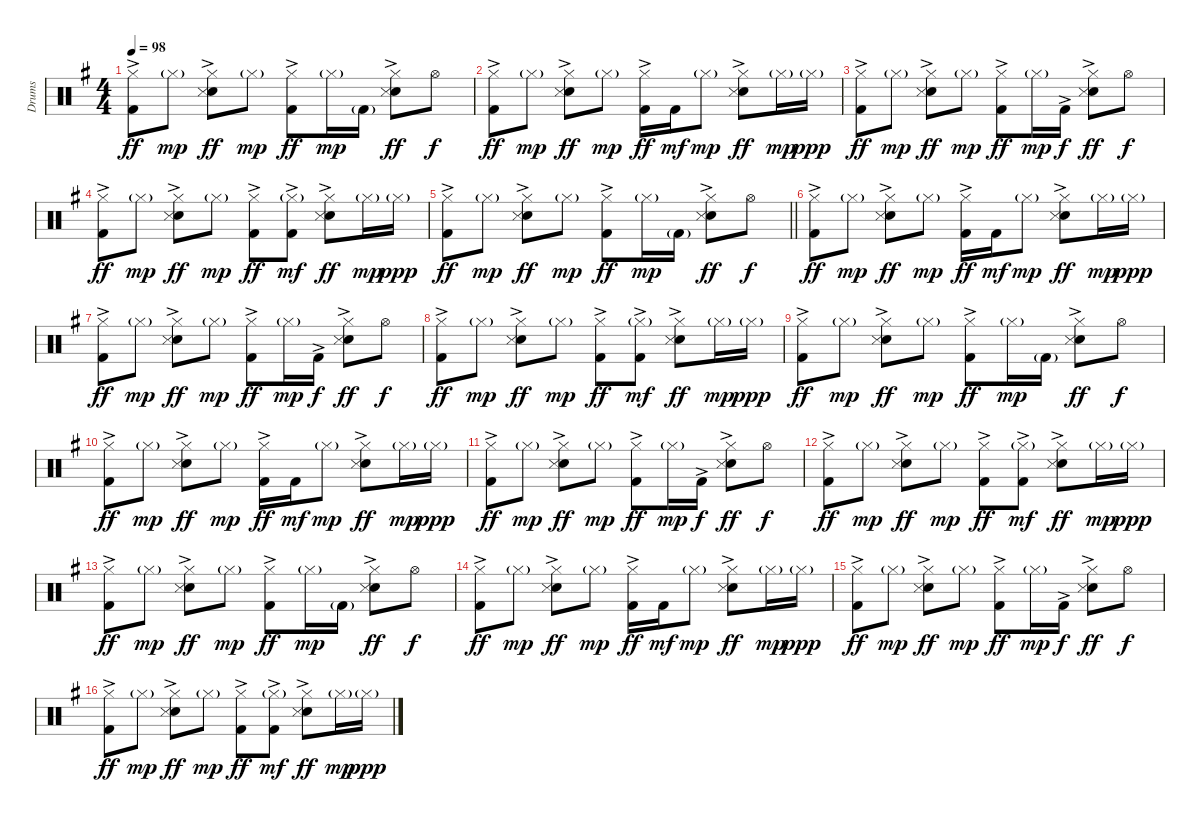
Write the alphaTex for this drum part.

\track ("Drums" "Drums") {instrument percussion}
\staff {score}
\articulation defaults
\ts (4 4)
\tempo 98
\clef neutral
\ks g
("Hi-Hat (closed)" "Kick (hit) 2"{ac}).8{dy ff} "Hi-Hat (closed)"{g}.8{dy mp} ("Hi-Hat (closed)" "Hand Clap (hit)" "Snare (side stick) 3"{ac}).8{dy ff} "Hi-Hat (closed)"{g}.8{dy mp} ("Hi-Hat (closed)" "Kick (hit) 2"{ac}).8{dy ff} "Hi-Hat (closed)"{g}.16{dy mp} "Kick (hit) 2"{g}.16 ("Hi-Hat (closed)" "Hand Clap (hit)" "Snare (side stick) 3"{ac}).8{dy ff} "Hi-Hat (open)".8{dy f} |
("Hi-Hat (closed)" "Kick (hit) 2"{ac}).8{dy ff} "Hi-Hat (closed)"{g}.8{dy mp} ("Hi-Hat (closed)" "Hand Clap (hit)" "Snare (side stick) 3"{ac}).8{dy ff} "Hi-Hat (closed)"{g}.8{dy mp} ("Hi-Hat (closed)" "Kick (hit) 2"{ac}).16{dy ff} "Kick (hit) 2".16{dy mf} "Hi-Hat (closed)"{g}.8{dy mp} ("Hi-Hat (closed)" "Hand Clap (hit)" "Snare (side stick) 3"{ac}).8{dy ff} "Hi-Hat (closed)"{g}.16{dy mp} "Hi-Hat (closed)"{g}.16{dy ppp} |
("Hi-Hat (closed)" "Kick (hit) 2"{ac}).8{dy ff} "Hi-Hat (closed)"{g}.8{dy mp} ("Hi-Hat (closed)" "Hand Clap (hit)" "Snare (side stick) 3"{ac}).8{dy ff} "Hi-Hat (closed)"{g}.8{dy mp} ("Hi-Hat (closed)" "Kick (hit) 2"{ac}).8{dy ff} "Hi-Hat (closed)"{g}.16{dy mp} "Kick (hit) 2"{ac}.16{dy f} ("Hi-Hat (closed)" "Hand Clap (hit)" "Snare (side stick) 3"{ac}).8{dy ff} "Hi-Hat (open)".8{dy f} |
("Hi-Hat (closed)" "Kick (hit) 2"{ac}).8{dy ff} "Hi-Hat (closed)"{g}.8{dy mp} ("Hi-Hat (closed)" "Hand Clap (hit)" "Snare (side stick) 3"{ac}).8{dy ff} "Hi-Hat (closed)"{g}.8{dy mp} ("Hi-Hat (closed)" "Kick (hit) 2"{ac}).8{dy ff} ("Hi-Hat (closed)"{g} "Kick (hit) 2"{ac}).8{dy mf} ("Hi-Hat (closed)" "Hand Clap (hit)" "Snare (side stick) 3"{ac}).8{dy ff} "Hi-Hat (closed)"{g}.16{dy mp} "Hi-Hat (closed)"{g}.16{dy ppp} |
\barLineRight lightlight
("Hi-Hat (closed)" "Kick (hit) 2"{ac}).8{dy ff} "Hi-Hat (closed)"{g}.8{dy mp} ("Hi-Hat (closed)" "Hand Clap (hit)" "Snare (side stick) 3"{ac}).8{dy ff} "Hi-Hat (closed)"{g}.8{dy mp} ("Hi-Hat (closed)" "Kick (hit) 2"{ac}).8{dy ff} "Hi-Hat (closed)"{g}.16{dy mp} "Kick (hit) 2"{g}.16 ("Hi-Hat (closed)" "Hand Clap (hit)" "Snare (side stick) 3"{ac}).8{dy ff} "Hi-Hat (open)".8{dy f} |
("Hi-Hat (closed)" "Kick (hit) 2"{ac}).8{dy ff} "Hi-Hat (closed)"{g}.8{dy mp} ("Hi-Hat (closed)" "Hand Clap (hit)" "Snare (side stick) 3"{ac}).8{dy ff} "Hi-Hat (closed)"{g}.8{dy mp} ("Hi-Hat (closed)" "Kick (hit) 2"{ac}).16{dy ff} "Kick (hit) 2".16{dy mf} "Hi-Hat (closed)"{g}.8{dy mp} ("Hi-Hat (closed)" "Hand Clap (hit)" "Snare (side stick) 3"{ac}).8{dy ff} "Hi-Hat (closed)"{g}.16{dy mp} "Hi-Hat (closed)"{g}.16{dy ppp} |
("Hi-Hat (closed)" "Kick (hit) 2"{ac}).8{dy ff} "Hi-Hat (closed)"{g}.8{dy mp} ("Hi-Hat (closed)" "Hand Clap (hit)" "Snare (side stick) 3"{ac}).8{dy ff} "Hi-Hat (closed)"{g}.8{dy mp} ("Hi-Hat (closed)" "Kick (hit) 2"{ac}).8{dy ff} "Hi-Hat (closed)"{g}.16{dy mp} "Kick (hit) 2"{ac}.16{dy f} ("Hi-Hat (closed)" "Hand Clap (hit)" "Snare (side stick) 3"{ac}).8{dy ff} "Hi-Hat (open)".8{dy f} |
("Hi-Hat (closed)" "Kick (hit) 2"{ac}).8{dy ff} "Hi-Hat (closed)"{g}.8{dy mp} ("Hi-Hat (closed)" "Hand Clap (hit)" "Snare (side stick) 3"{ac}).8{dy ff} "Hi-Hat (closed)"{g}.8{dy mp} ("Hi-Hat (closed)" "Kick (hit) 2"{ac}).8{dy ff} ("Hi-Hat (closed)"{g} "Kick (hit) 2"{ac}).8{dy mf} ("Hi-Hat (closed)" "Hand Clap (hit)" "Snare (side stick) 3"{ac}).8{dy ff} "Hi-Hat (closed)"{g}.16{dy mp} "Hi-Hat (closed)"{g}.16{dy ppp} |
("Hi-Hat (closed)" "Kick (hit) 2"{ac}).8{dy ff} "Hi-Hat (closed)"{g}.8{dy mp} ("Hi-Hat (closed)" "Hand Clap (hit)" "Snare (side stick) 3"{ac}).8{dy ff} "Hi-Hat (closed)"{g}.8{dy mp} ("Hi-Hat (closed)" "Kick (hit) 2"{ac}).8{dy ff} "Hi-Hat (closed)"{g}.16{dy mp} "Kick (hit) 2"{g}.16 ("Hi-Hat (closed)" "Hand Clap (hit)" "Snare (side stick) 3"{ac}).8{dy ff} "Hi-Hat (open)".8{dy f} |
("Hi-Hat (closed)" "Kick (hit) 2"{ac}).8{dy ff} "Hi-Hat (closed)"{g}.8{dy mp} ("Hi-Hat (closed)" "Hand Clap (hit)" "Snare (side stick) 3"{ac}).8{dy ff} "Hi-Hat (closed)"{g}.8{dy mp} ("Hi-Hat (closed)" "Kick (hit) 2"{ac}).16{dy ff} "Kick (hit) 2".16{dy mf} "Hi-Hat (closed)"{g}.8{dy mp} ("Hi-Hat (closed)" "Hand Clap (hit)" "Snare (side stick) 3"{ac}).8{dy ff} "Hi-Hat (closed)"{g}.16{dy mp} "Hi-Hat (closed)"{g}.16{dy ppp} |
("Hi-Hat (closed)" "Kick (hit) 2"{ac}).8{dy ff} "Hi-Hat (closed)"{g}.8{dy mp} ("Hi-Hat (closed)" "Hand Clap (hit)" "Snare (side stick) 3"{ac}).8{dy ff} "Hi-Hat (closed)"{g}.8{dy mp} ("Hi-Hat (closed)" "Kick (hit) 2"{ac}).8{dy ff} "Hi-Hat (closed)"{g}.16{dy mp} "Kick (hit) 2"{ac}.16{dy f} ("Hi-Hat (closed)" "Hand Clap (hit)" "Snare (side stick) 3"{ac}).8{dy ff} "Hi-Hat (open)".8{dy f} |
("Hi-Hat (closed)" "Kick (hit) 2"{ac}).8{dy ff} "Hi-Hat (closed)"{g}.8{dy mp} ("Hi-Hat (closed)" "Hand Clap (hit)" "Snare (side stick) 3"{ac}).8{dy ff} "Hi-Hat (closed)"{g}.8{dy mp} ("Hi-Hat (closed)" "Kick (hit) 2"{ac}).8{dy ff} ("Hi-Hat (closed)"{g} "Kick (hit) 2"{ac}).8{dy mf} ("Hi-Hat (closed)" "Hand Clap (hit)" "Snare (side stick) 3"{ac}).8{dy ff} "Hi-Hat (closed)"{g}.16{dy mp} "Hi-Hat (closed)"{g}.16{dy ppp} |
("Hi-Hat (closed)" "Kick (hit) 2"{ac}).8{dy ff} "Hi-Hat (closed)"{g}.8{dy mp} ("Hi-Hat (closed)" "Hand Clap (hit)" "Snare (side stick) 3"{ac}).8{dy ff} "Hi-Hat (closed)"{g}.8{dy mp} ("Hi-Hat (closed)" "Kick (hit) 2"{ac}).8{dy ff} "Hi-Hat (closed)"{g}.16{dy mp} "Kick (hit) 2"{g}.16 ("Hi-Hat (closed)" "Hand Clap (hit)" "Snare (side stick) 3"{ac}).8{dy ff} "Hi-Hat (open)".8{dy f} |
("Hi-Hat (closed)" "Kick (hit) 2"{ac}).8{dy ff} "Hi-Hat (closed)"{g}.8{dy mp} ("Hi-Hat (closed)" "Hand Clap (hit)" "Snare (side stick) 3"{ac}).8{dy ff} "Hi-Hat (closed)"{g}.8{dy mp} ("Hi-Hat (closed)" "Kick (hit) 2"{ac}).16{dy ff} "Kick (hit) 2".16{dy mf} "Hi-Hat (closed)"{g}.8{dy mp} ("Hi-Hat (closed)" "Hand Clap (hit)" "Snare (side stick) 3"{ac}).8{dy ff} "Hi-Hat (closed)"{g}.16{dy mp} "Hi-Hat (closed)"{g}.16{dy ppp} |
("Hi-Hat (closed)" "Kick (hit) 2"{ac}).8{dy ff} "Hi-Hat (closed)"{g}.8{dy mp} ("Hi-Hat (closed)" "Hand Clap (hit)" "Snare (side stick) 3"{ac}).8{dy ff} "Hi-Hat (closed)"{g}.8{dy mp} ("Hi-Hat (closed)" "Kick (hit) 2"{ac}).8{dy ff} "Hi-Hat (closed)"{g}.16{dy mp} "Kick (hit) 2"{ac}.16{dy f} ("Hi-Hat (closed)" "Hand Clap (hit)" "Snare (side stick) 3"{ac}).8{dy ff} "Hi-Hat (open)".8{dy f} |
("Hi-Hat (closed)" "Kick (hit) 2"{ac}).8{dy ff} "Hi-Hat (closed)"{g}.8{dy mp} ("Hi-Hat (closed)" "Hand Clap (hit)" "Snare (side stick) 3"{ac}).8{dy ff} "Hi-Hat (closed)"{g}.8{dy mp} ("Hi-Hat (closed)" "Kick (hit) 2"{ac}).8{dy ff} ("Hi-Hat (closed)"{g} "Kick (hit) 2"{ac}).8{dy mf} ("Hi-Hat (closed)" "Hand Clap (hit)" "Snare (side stick) 3"{ac}).8{dy ff} "Hi-Hat (closed)"{g}.16{dy mp} "Hi-Hat (closed)"{g}.16{dy ppp}
